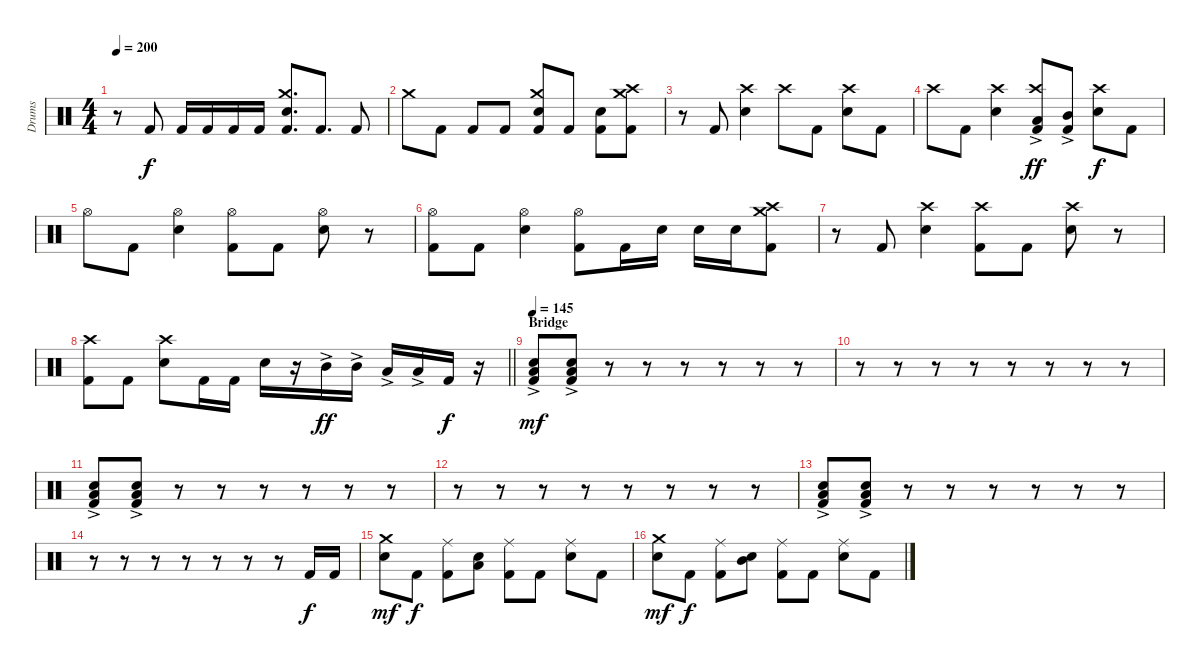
\track ("Drums" "Drums") {instrument percussion}
\staff {score}
\articulation defaults
\ts (4 4)
\tempo 200
\clef neutral
\ks c
r.8{dy f} "Kick (hit) 2".8 "Kick (hit) 2".16 "Kick (hit) 2".16 "Kick (hit) 2".16 "Kick (hit) 2".16 ("Crash medium (hit)" "Electric Snare (hit)" "Kick (hit) 2").8{d} "Kick (hit) 2".8{d} "Kick (hit) 2".8 |
"Crash medium (hit)".8 "Kick (hit) 2".8 "Kick (hit) 2".8 "Kick (hit) 2".8 ("Crash medium (hit)" "Electric Snare (hit)" "Kick (hit) 2").8 "Kick (hit) 2".8 ("Electric Snare (hit)" "Kick (hit) 2").8 ("Crash medium (hit)" "Crash high (hit)" "Kick (hit) 2").8 |
r.8 "Kick (hit) 2".8 ("Crash high (hit)" "Electric Snare (hit)").4 "Crash high (hit)".8 "Kick (hit) 2".8 ("Crash high (hit)" "Electric Snare (hit)").8 "Kick (hit) 2".8 |
"Crash high (hit)".8 "Kick (hit) 2".8 ("Crash high (hit)" "Electric Snare (hit)").4 ("Crash high (hit)" "Low Tom (hit)"{ac} "Kick (hit) 2").8{dy ff} ("Mid Tom (hit)"{ac} "Kick (hit) 2").8 ("Crash high (hit)" "Electric Snare (hit)").8{dy f} "Kick (hit) 2".8 |
"Hi-Hat (open)".8 "Kick (hit) 2".8 ("Hi-Hat (open)" "Electric Snare (hit)").4 ("Hi-Hat (open)" "Kick (hit) 2").8 "Kick (hit) 2".8 ("Hi-Hat (open)" "Electric Snare (hit)").8 r.8 |
("Hi-Hat (open)" "Kick (hit) 2").8 "Kick (hit) 2".8 ("Hi-Hat (open)" "Electric Snare (hit)").4 ("Hi-Hat (open)" "Kick (hit) 2").8 "Kick (hit) 2".16 "Electric Snare (hit)".16 "Electric Snare (hit)".16 "Electric Snare (hit)".16 ("Crash medium (hit)" "Crash high (hit)" "Kick (hit) 2").8 |
r.8 "Kick (hit) 2".8 ("Crash high (hit)" "Electric Snare (hit)").4 ("Crash high (hit)" "Kick (hit) 2").8 "Kick (hit) 2".8 ("Crash high (hit)" "Electric Snare (hit)").8 r.8 |
\barLineRight lightlight
("Crash high (hit)" "Kick (hit) 2").8 "Kick (hit) 2".8 ("Crash high (hit)" "Electric Snare (hit)").8 "Kick (hit) 2".16 "Kick (hit) 2".16 "Electric Snare (hit)".16 r.16 "Mid Tom (hit)"{ac}.16{dy ff} "Mid Tom (hit)"{ac}.16 "Low Tom (hit)"{ac}.16 "Low Tom (hit)"{ac}.16 "Kick (hit) 2".16{dy f} r.16 |
\section ("" "Bridge")
\tempo 145
("Low Tom (hit)"{ac} "Electric Snare (hit)" "Kick (hit) 2").8{dy mf} ("Low Tom (hit)"{ac} "Electric Snare (hit)" "Kick (hit) 2").8 r.8 r.8 r.8 r.8 r.8 r.8 |
r.8 r.8 r.8 r.8 r.8 r.8 r.8 r.8 |
("Low Tom (hit)"{ac} "Electric Snare (hit)" "Kick (hit) 2").8 ("Low Tom (hit)"{ac} "Electric Snare (hit)" "Kick (hit) 2").8 r.8 r.8 r.8 r.8 r.8 r.8 |
r.8 r.8 r.8 r.8 r.8 r.8 r.8 r.8 |
("Low Tom (hit)"{ac} "Electric Snare (hit)" "Kick (hit) 2").8 ("Low Tom (hit)"{ac} "Electric Snare (hit)" "Kick (hit) 2").8 r.8 r.8 r.8 r.8 r.8 r.8 |
r.8 r.8 r.8 r.8 r.8 r.8 r.8 "Kick (hit) 2".16{dy f} "Kick (hit) 2".16 |
("Crash medium (hit)" "Electric Snare (hit)").8{dy mf} "Kick (hit) 2".8{dy f} ("Ride (middle)" "Kick (hit) 2").8 ("Low Tom (hit)" "Electric Snare (hit)").8 ("Ride (middle)" "Kick (hit) 2").8 "Kick (hit) 2".8 ("Ride (middle)" "Electric Snare (hit)").8 "Kick (hit) 2".8 |
("Crash medium (hit)" "Electric Snare (hit)").8{dy mf} "Kick (hit) 2".8{dy f} ("Ride (middle)" "Kick (hit) 2").8 ("Mid Tom (hit)" "Electric Snare (hit)").8 ("Ride (middle)" "Kick (hit) 2").8 "Kick (hit) 2".8 ("Ride (middle)" "Electric Snare (hit)").8 "Kick (hit) 2".8
